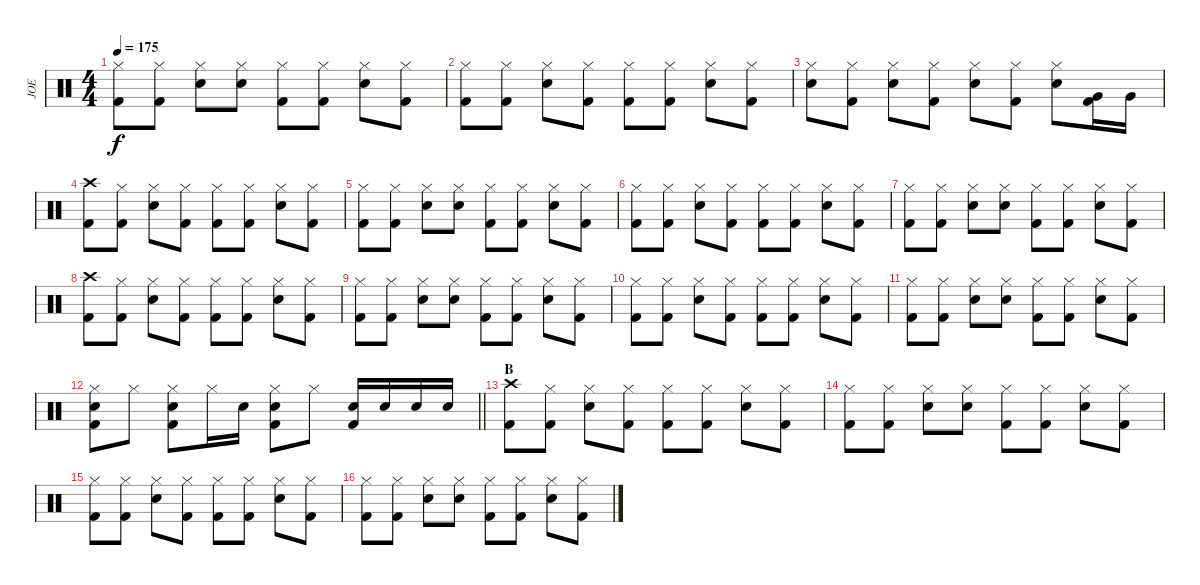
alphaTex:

\track ("JOE" "JOE") {instrument percussion}
\staff {score}
\articulation defaults
\ts (4 4)
\tempo 175
\clef neutral
\ks c
("Hi-Hat (closed)" "Kick (hit) 2").8{dy f} ("Hi-Hat (closed)" "Kick (hit) 2").8 ("Hi-Hat (closed)" "Snare (hit) 2").8 ("Hi-Hat (closed)" "Snare (hit) 2").8 ("Hi-Hat (closed)" "Kick (hit) 2").8 ("Hi-Hat (closed)" "Kick (hit) 2").8 ("Hi-Hat (closed)" "Snare (hit) 2").8 ("Hi-Hat (closed)" "Kick (hit) 2").8 |
("Hi-Hat (closed)" "Kick (hit) 2").8 ("Hi-Hat (closed)" "Kick (hit) 2").8 ("Hi-Hat (closed)" "Snare (hit) 2").8 ("Hi-Hat (closed)" "Kick (hit) 2").8 ("Hi-Hat (closed)" "Kick (hit) 2").8 ("Hi-Hat (closed)" "Kick (hit) 2").8 ("Hi-Hat (closed)" "Snare (hit) 2").8 ("Hi-Hat (closed)" "Kick (hit) 2").8 |
("Hi-Hat (closed)" "Snare (hit) 2").8 ("Hi-Hat (closed)" "Kick (hit) 2").8 ("Hi-Hat (closed)" "Snare (hit) 2").8 ("Hi-Hat (closed)" "Kick (hit) 2").8 ("Hi-Hat (closed)" "Snare (hit) 2").8 ("Hi-Hat (closed)" "Kick (hit) 2").8 ("Hi-Hat (closed)" "Snare (hit) 2").8 ("Very Low Tom (hit)" "Kick (hit) 2").16 "Very Low Tom (hit)".16 |
("Crash high (hit)" "Kick (hit) 2").8 ("Hi-Hat (closed)" "Kick (hit) 2").8 ("Hi-Hat (closed)" "Snare (hit) 2").8 ("Hi-Hat (closed)" "Kick (hit) 2").8 ("Hi-Hat (closed)" "Kick (hit) 2").8 ("Hi-Hat (closed)" "Kick (hit) 2").8 ("Hi-Hat (closed)" "Snare (hit) 2").8 ("Hi-Hat (closed)" "Kick (hit) 2").8 |
("Hi-Hat (closed)" "Kick (hit) 2").8 ("Hi-Hat (closed)" "Kick (hit) 2").8 ("Hi-Hat (closed)" "Snare (hit) 2").8 ("Hi-Hat (closed)" "Snare (hit) 2").8 ("Hi-Hat (closed)" "Kick (hit) 2").8 ("Hi-Hat (closed)" "Kick (hit) 2").8 ("Hi-Hat (closed)" "Snare (hit) 2").8 ("Hi-Hat (closed)" "Kick (hit) 2").8 |
("Hi-Hat (closed)" "Kick (hit) 2").8 ("Hi-Hat (closed)" "Kick (hit) 2").8 ("Hi-Hat (closed)" "Snare (hit) 2").8 ("Hi-Hat (closed)" "Kick (hit) 2").8 ("Hi-Hat (closed)" "Kick (hit) 2").8 ("Hi-Hat (closed)" "Kick (hit) 2").8 ("Hi-Hat (closed)" "Snare (hit) 2").8 ("Hi-Hat (closed)" "Kick (hit) 2").8 |
("Hi-Hat (closed)" "Kick (hit) 2").8 ("Hi-Hat (closed)" "Kick (hit) 2").8 ("Hi-Hat (closed)" "Snare (hit) 2").8 ("Hi-Hat (closed)" "Snare (hit) 2").8 ("Hi-Hat (closed)" "Kick (hit) 2").8 ("Hi-Hat (closed)" "Kick (hit) 2").8 ("Hi-Hat (closed)" "Snare (hit) 2").8 ("Hi-Hat (closed)" "Kick (hit) 2").8 |
("Crash high (hit)" "Kick (hit) 2").8 ("Hi-Hat (closed)" "Kick (hit) 2").8 ("Hi-Hat (closed)" "Snare (hit) 2").8 ("Hi-Hat (closed)" "Kick (hit) 2").8 ("Hi-Hat (closed)" "Kick (hit) 2").8 ("Hi-Hat (closed)" "Kick (hit) 2").8 ("Hi-Hat (closed)" "Snare (hit) 2").8 ("Hi-Hat (closed)" "Kick (hit) 2").8 |
("Hi-Hat (closed)" "Kick (hit) 2").8 ("Hi-Hat (closed)" "Kick (hit) 2").8 ("Hi-Hat (closed)" "Snare (hit) 2").8 ("Hi-Hat (closed)" "Snare (hit) 2").8 ("Hi-Hat (closed)" "Kick (hit) 2").8 ("Hi-Hat (closed)" "Kick (hit) 2").8 ("Hi-Hat (closed)" "Snare (hit) 2").8 ("Hi-Hat (closed)" "Kick (hit) 2").8 |
("Hi-Hat (closed)" "Kick (hit) 2").8 ("Hi-Hat (closed)" "Kick (hit) 2").8 ("Hi-Hat (closed)" "Snare (hit) 2").8 ("Hi-Hat (closed)" "Kick (hit) 2").8 ("Hi-Hat (closed)" "Kick (hit) 2").8 ("Hi-Hat (closed)" "Kick (hit) 2").8 ("Hi-Hat (closed)" "Snare (hit) 2").8 ("Hi-Hat (closed)" "Kick (hit) 2").8 |
("Hi-Hat (closed)" "Kick (hit) 2").8 ("Hi-Hat (closed)" "Kick (hit) 2").8 ("Hi-Hat (closed)" "Snare (hit) 2").8 ("Hi-Hat (closed)" "Snare (hit) 2").8 ("Hi-Hat (closed)" "Kick (hit) 2").8 ("Hi-Hat (closed)" "Kick (hit) 2").8 ("Hi-Hat (closed)" "Snare (hit) 2").8 ("Hi-Hat (closed)" "Kick (hit) 2").8 |
\barLineRight lightlight
("Hi-Hat (closed)" "Snare (hit) 2" "Kick (hit) 2").8 "Hi-Hat (closed)".8 ("Hi-Hat (closed)" "Snare (hit) 2" "Kick (hit) 2").8 "Hi-Hat (closed)".16 "Snare (hit) 2".16 ("Hi-Hat (closed)" "Snare (hit) 2" "Kick (hit) 2").8 "Hi-Hat (closed)".8 ("Snare (hit) 2" "Kick (hit) 2").16 "Snare (hit) 2".16 "Snare (hit) 2".16 "Snare (hit) 2".16 |
\section ("" "B ")
("Crash high (hit)" "Kick (hit) 2").8 ("Hi-Hat (closed)" "Kick (hit) 2").8 ("Hi-Hat (closed)" "Snare (hit) 2").8 ("Hi-Hat (closed)" "Kick (hit) 2").8 ("Hi-Hat (closed)" "Kick (hit) 2").8 ("Hi-Hat (closed)" "Kick (hit) 2").8 ("Hi-Hat (closed)" "Snare (hit) 2").8 ("Hi-Hat (closed)" "Kick (hit) 2").8 |
("Hi-Hat (closed)" "Kick (hit) 2").8 ("Hi-Hat (closed)" "Kick (hit) 2").8 ("Hi-Hat (closed)" "Snare (hit) 2").8 ("Hi-Hat (closed)" "Snare (hit) 2").8 ("Hi-Hat (closed)" "Kick (hit) 2").8 ("Hi-Hat (closed)" "Kick (hit) 2").8 ("Hi-Hat (closed)" "Snare (hit) 2").8 ("Hi-Hat (closed)" "Kick (hit) 2").8 |
("Hi-Hat (closed)" "Kick (hit) 2").8 ("Hi-Hat (closed)" "Kick (hit) 2").8 ("Hi-Hat (closed)" "Snare (hit) 2").8 ("Hi-Hat (closed)" "Kick (hit) 2").8 ("Hi-Hat (closed)" "Kick (hit) 2").8 ("Hi-Hat (closed)" "Kick (hit) 2").8 ("Hi-Hat (closed)" "Snare (hit) 2").8 ("Hi-Hat (closed)" "Kick (hit) 2").8 |
("Hi-Hat (closed)" "Kick (hit) 2").8 ("Hi-Hat (closed)" "Kick (hit) 2").8 ("Hi-Hat (closed)" "Snare (hit) 2").8 ("Hi-Hat (closed)" "Snare (hit) 2").8 ("Hi-Hat (closed)" "Kick (hit) 2").8 ("Hi-Hat (closed)" "Kick (hit) 2").8 ("Hi-Hat (closed)" "Snare (hit) 2").8 ("Hi-Hat (closed)" "Kick (hit) 2").8
